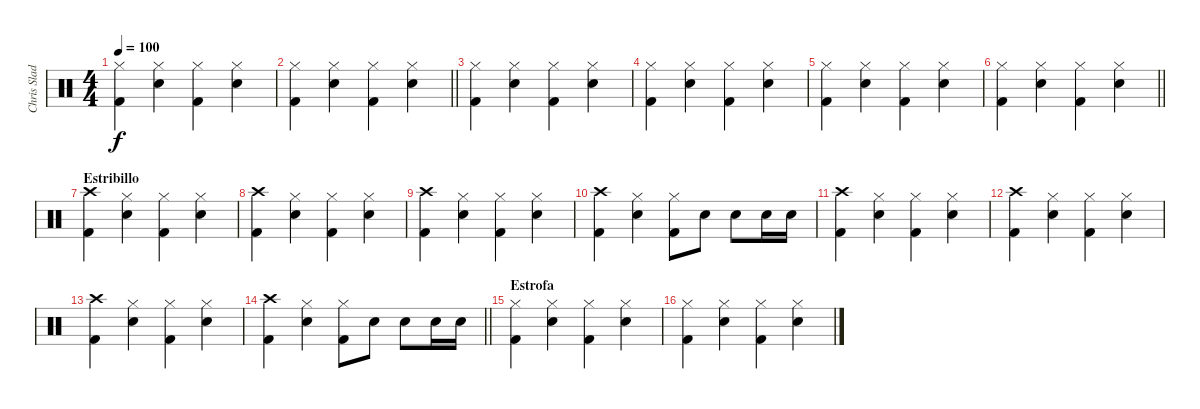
\track ("Chris Slade" "Chris Slad") {instrument percussion}
\staff {score}
\articulation defaults
\ts (4 4)
\tempo 100
\clef neutral
\ks c
("Kick (hit) 2" "Hi-Hat (closed)").4{dy f} ("Snare (hit) 2" "Hi-Hat (closed)").4 ("Kick (hit) 2" "Hi-Hat (closed)").4 ("Snare (hit) 2" "Hi-Hat (closed)").4 |
\barLineRight lightlight
("Kick (hit) 2" "Hi-Hat (closed)").4 ("Snare (hit) 2" "Hi-Hat (closed)").4 ("Kick (hit) 2" "Hi-Hat (closed)").4 ("Snare (hit) 2" "Hi-Hat (closed)").4 |
("Kick (hit) 2" "Hi-Hat (closed)").4 ("Snare (hit) 2" "Hi-Hat (closed)").4 ("Kick (hit) 2" "Hi-Hat (closed)").4 ("Snare (hit) 2" "Hi-Hat (closed)").4 |
("Kick (hit) 2" "Hi-Hat (closed)").4 ("Snare (hit) 2" "Hi-Hat (closed)").4 ("Kick (hit) 2" "Hi-Hat (closed)").4 ("Snare (hit) 2" "Hi-Hat (closed)").4 |
("Kick (hit) 2" "Hi-Hat (closed)").4 ("Snare (hit) 2" "Hi-Hat (closed)").4 ("Kick (hit) 2" "Hi-Hat (closed)").4 ("Snare (hit) 2" "Hi-Hat (closed)").4 |
\barLineRight lightlight
("Kick (hit) 2" "Hi-Hat (closed)").4 ("Snare (hit) 2" "Hi-Hat (closed)").4 ("Kick (hit) 2" "Hi-Hat (closed)").4 ("Snare (hit) 2" "Hi-Hat (closed)").4 |
\section ("" "Estribillo")
("Kick (hit) 2" "Crash high (hit)").4 ("Snare (hit) 2" "Hi-Hat (closed)").4 ("Kick (hit) 2" "Hi-Hat (closed)").4 ("Snare (hit) 2" "Hi-Hat (closed)").4 |
("Kick (hit) 2" "Crash high (hit)").4 ("Snare (hit) 2" "Hi-Hat (closed)").4 ("Kick (hit) 2" "Hi-Hat (closed)").4 ("Snare (hit) 2" "Hi-Hat (closed)").4 |
("Kick (hit) 2" "Crash high (hit)").4 ("Snare (hit) 2" "Hi-Hat (closed)").4 ("Kick (hit) 2" "Hi-Hat (closed)").4 ("Snare (hit) 2" "Hi-Hat (closed)").4 |
("Kick (hit) 2" "Crash high (hit)").4 ("Snare (hit) 2" "Hi-Hat (closed)").4 ("Kick (hit) 2" "Hi-Hat (closed)").8 "Snare (hit) 2".8 "Snare (hit) 2".8 "Snare (hit) 2".16 "Snare (hit) 2".16 |
("Kick (hit) 2" "Crash high (hit)").4 ("Snare (hit) 2" "Hi-Hat (closed)").4 ("Kick (hit) 2" "Hi-Hat (closed)").4 ("Snare (hit) 2" "Hi-Hat (closed)").4 |
("Kick (hit) 2" "Crash high (hit)").4 ("Snare (hit) 2" "Hi-Hat (closed)").4 ("Kick (hit) 2" "Hi-Hat (closed)").4 ("Snare (hit) 2" "Hi-Hat (closed)").4 |
("Kick (hit) 2" "Crash high (hit)").4 ("Snare (hit) 2" "Hi-Hat (closed)").4 ("Kick (hit) 2" "Hi-Hat (closed)").4 ("Snare (hit) 2" "Hi-Hat (closed)").4 |
\barLineRight lightlight
("Kick (hit) 2" "Crash high (hit)").4 ("Snare (hit) 2" "Hi-Hat (closed)").4 ("Kick (hit) 2" "Hi-Hat (closed)").8 "Snare (hit) 2".8 "Snare (hit) 2".8 "Snare (hit) 2".16 "Snare (hit) 2".16 |
\section ("" "Estrofa")
("Kick (hit) 2" "Hi-Hat (closed)").4 ("Snare (hit) 2" "Hi-Hat (closed)").4 ("Kick (hit) 2" "Hi-Hat (closed)").4 ("Snare (hit) 2" "Hi-Hat (closed)").4 |
("Kick (hit) 2" "Hi-Hat (closed)").4 ("Snare (hit) 2" "Hi-Hat (closed)").4 ("Kick (hit) 2" "Hi-Hat (closed)").4 ("Snare (hit) 2" "Hi-Hat (closed)").4
